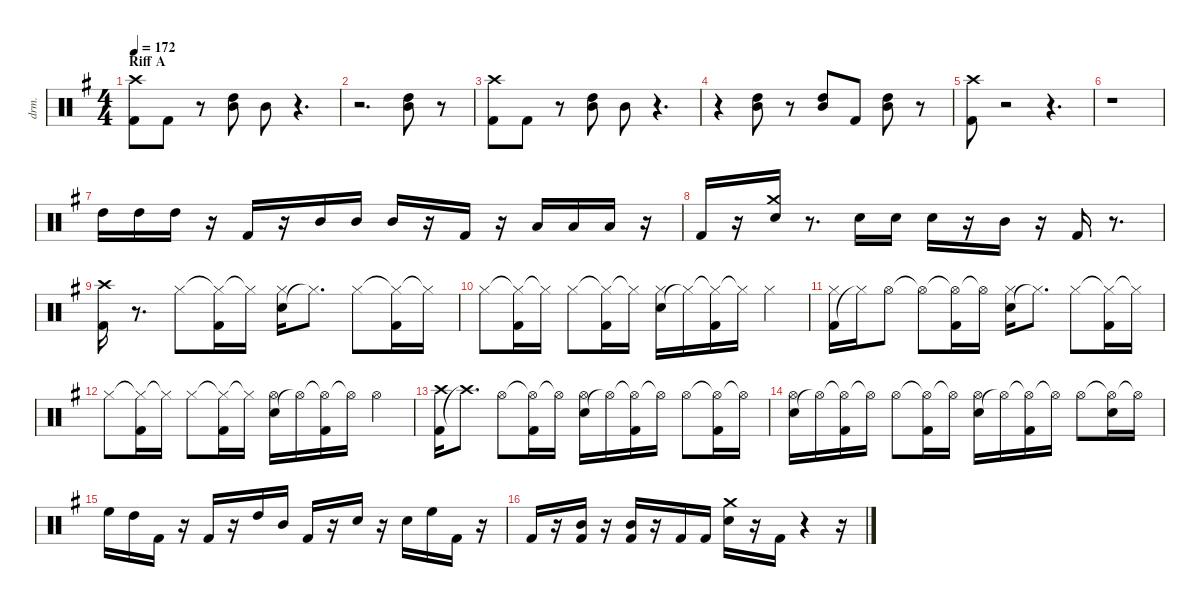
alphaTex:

\defaultSystemsLayout 4
\hideDynamics
\bracketExtendMode nobrackets
\otherSystemsTrackNameOrientation horizontal
\track ("Shinya" "drm.") {instrument percussion}
\staff {score}
\articulation defaults
\ts (4 4)
\beaming (8 2 2 2 2)
\section ("" "Riff A")
\tempo 172
\clef neutral
\ks eminor
("Kick (hit) 2"{acc forcenatural} "Crash high (hit)"{acc #}).8{dy fff beam Down} "Kick (hit) 2"{acc forcenatural}.8{beam Down} r.8{beam Down} ("Mid Tom (hit)"{acc forcenatural} "High Tom (hit)"{acc forcenatural}).8{beam Down} "Mid Tom (hit)"{acc forcenatural}.8{dy ff beam Down} r.4{d beam Down} |
r.2{d beam Down} ("Mid Tom (hit)"{acc forcenatural} "High Tom (hit)"{acc forcenatural}).8{dy fff beam Down} r.8{beam Down} |
("Kick (hit) 2"{acc forcenatural} "Crash high (hit)"{acc #}).8{beam Down} "Kick (hit) 2"{acc forcenatural}.8{beam Down} r.8{beam Down} ("Mid Tom (hit)"{acc forcenatural} "High Tom (hit)"{acc forcenatural}).8{beam Down} "Mid Tom (hit)"{acc forcenatural}.8{beam Down} r.4{d beam Down} |
r.4{beam Down} ("Mid Tom (hit)"{acc forcenatural} "High Tom (hit)"{acc forcenatural}).8{beam Down} r.8{beam Down} ("Mid Tom (hit)"{acc forcenatural} "High Tom (hit)"{acc forcenatural}).8{beam Up} "Kick (hit) 2"{acc forcenatural}.8{dy ff beam Up} ("Mid Tom (hit)"{acc forcenatural} "High Tom (hit)"{acc forcenatural}).8{dy fff beam Down} r.8{beam Down} |
("Kick (hit) 2"{acc forcenatural} "Crash high (hit)"{acc #}).8{beam Down} r.2{beam Down} r.4{d beam Down} |
r.1{beam Down} |
"High Tom (hit)"{acc forcenatural}.16{beam Down} "High Tom (hit)"{acc forcenatural}.16{beam Down} "High Tom (hit)"{acc forcenatural}.16{beam Down} r.16{beam Down} "Kick (hit) 2"{acc forcenatural}.16{beam Up} r.16{beam Up} "Mid Tom (hit)"{acc forcenatural}.16{beam Up} "Mid Tom (hit)"{acc forcenatural}.16{beam Up} "Mid Tom (hit)"{acc forcenatural}.16{beam Up} r.16{beam Up} "Kick (hit) 2"{acc forcenatural}.16{beam Up} r.16{beam Up} "Low Tom (hit)"{acc forcenatural}.16{beam Up} "Low Tom (hit)"{acc forcenatural}.16{dy ff beam Up} "Low Tom (hit)"{acc forcenatural}.16{dy fff beam Up} r.16{beam Up} |
"Kick (hit) 2"{acc forcenatural}.16{beam Up} r.16{beam Up} ("Snare (hit) 2"{acc forcenatural} "Crash medium (hit)"{acc forcenatural}).16{beam Down} r.8{d beam Down} "Snare (hit) 2"{acc forcenatural}.16{beam Down} "Snare (hit) 2"{acc forcenatural}.16{beam Down} "Snare (hit) 2"{acc forcenatural}.16{beam Down} r.16{beam Down} "Mid Tom (hit)"{acc forcenatural}.16{beam Down} r.16{beam Down} "Kick (hit) 2"{acc forcenatural}.16{beam Up} r.8{d beam Up} |
("Kick (hit) 2"{acc forcenatural} "Crash high (hit)"{acc #}).16{beam Down} r.8{d beam Down} "Hi-Hat (closed)"{acc #}.8{beam Down} ("Hi-Hat (closed)"{t acc #} "Kick (hit) 2"{acc forcenatural}).16{beam Down} "Hi-Hat (closed)"{t acc #}.16{beam Down} ("Snare (hit) 2"{acc forcenatural} "Hi-Hat (closed)"{acc #}).16{beam Down} "Hi-Hat (closed)"{t acc #}.8{d beam Down} "Hi-Hat (closed)"{acc #}.8{beam Down} ("Hi-Hat (closed)"{t acc #} "Kick (hit) 2"{acc forcenatural}).16{beam Down} "Hi-Hat (closed)"{t acc #}.16{beam Down} |
"Hi-Hat (closed)"{acc #}.8{beam Down} ("Hi-Hat (closed)"{t acc #} "Kick (hit) 2"{acc forcenatural}).16{beam Down} "Hi-Hat (closed)"{t acc #}.16{beam Down} "Hi-Hat (closed)"{acc #}.8{dy ff beam Down} ("Hi-Hat (closed)"{t acc #} "Kick (hit) 2"{acc forcenatural}).16{beam Down} "Hi-Hat (closed)"{t acc #}.16{beam Down} ("Snare (hit) 2"{acc forcenatural} "Hi-Hat (closed)"{acc #}).16{dy fff beam Down} "Hi-Hat (closed)"{t acc #}.16{beam Down} ("Hi-Hat (closed)"{t acc #} "Kick (hit) 2"{acc forcenatural}).16{beam Down} "Hi-Hat (closed)"{t acc #}.16{beam Down} "Hi-Hat (closed)"{acc #}.4{beam Down} |
("Kick (hit) 2"{acc forcenatural} "Hi-Hat (closed)"{acc #}).16{beam Down} "Hi-Hat (closed)"{t acc #}.16{beam Down} "Hi-Hat (open)"{acc #}.8{beam Down} "Hi-Hat (open)"{t acc #}.8{beam Down} ("Hi-Hat (open)"{t acc #} "Kick (hit) 2"{acc forcenatural}).16{beam Down} "Hi-Hat (open)"{t acc #}.16{beam Down} ("Snare (hit) 2"{acc forcenatural} "Hi-Hat (closed)"{acc #}).16{beam Down} "Hi-Hat (closed)"{t acc #}.8{d beam Down} "Hi-Hat (closed)"{acc #}.8{beam Down} ("Hi-Hat (closed)"{t acc #} "Kick (hit) 2"{acc forcenatural}).16{beam Down} "Hi-Hat (closed)"{t acc #}.16{beam Down} |
"Hi-Hat (closed)"{acc #}.8{beam Down} ("Hi-Hat (closed)"{t acc #} "Kick (hit) 2"{acc forcenatural}).16{beam Down} "Hi-Hat (closed)"{t acc #}.16{beam Down} "Hi-Hat (closed)"{acc #}.8{beam Down} ("Hi-Hat (closed)"{t acc #} "Kick (hit) 2"{acc forcenatural}).16{beam Down} "Hi-Hat (closed)"{t acc #}.16{beam Down} ("Snare (hit) 2"{acc forcenatural} "Hi-Hat (open)"{acc #}).16{beam Down} "Hi-Hat (open)"{t acc #}.16{beam Down} ("Hi-Hat (open)"{t acc #} "Kick (hit) 2"{acc forcenatural}).16{beam Down} "Hi-Hat (open)"{t acc #}.16{beam Down} "Hi-Hat (open)"{acc #}.4{beam Down} |
("Kick (hit) 2"{acc forcenatural} "Crash high (hit)"{acc #}).16{beam Down} "Crash high (hit)"{t acc #}.8{d beam Down} "Hi-Hat (open)"{acc #}.8{beam Down} ("Hi-Hat (open)"{t acc #} "Kick (hit) 2"{acc forcenatural}).16{beam Down} "Hi-Hat (open)"{t acc #}.16{beam Down} ("Snare (hit) 2"{acc forcenatural} "Hi-Hat (open)"{acc #}).16{beam Down} "Hi-Hat (open)"{t acc #}.16{beam Down} ("Hi-Hat (open)"{t acc #} "Kick (hit) 2"{acc forcenatural}).16{beam Down} "Hi-Hat (open)"{t acc #}.16{beam Down} "Hi-Hat (open)"{acc #}.8{beam Down} ("Hi-Hat (open)"{t acc #} "Kick (hit) 2"{acc forcenatural}).16{beam Down} "Hi-Hat (open)"{t acc #}.16{beam Down} |
("Snare (hit) 2"{acc forcenatural} "Hi-Hat (open)"{acc #}).16{beam Down} "Hi-Hat (open)"{t acc #}.16{beam Down} ("Hi-Hat (open)"{t acc #} "Kick (hit) 2"{acc forcenatural}).16{beam Down} "Hi-Hat (open)"{t acc #}.16{beam Down} "Hi-Hat (open)"{acc #}.8{beam Down} ("Hi-Hat (open)"{t acc #} "Kick (hit) 2"{acc forcenatural}).16{beam Down} "Hi-Hat (open)"{t acc #}.16{beam Down} ("Snare (hit) 2"{acc forcenatural} "Hi-Hat (open)"{acc #}).16{beam Down} "Hi-Hat (open)"{t acc #}.16{beam Down} ("Hi-Hat (open)"{t acc #} "Kick (hit) 2"{acc forcenatural}).16{beam Down} "Hi-Hat (open)"{t acc #}.16{beam Down} "Hi-Hat (open)"{acc #}.8{beam Down} ("Hi-Hat (open)"{t acc #} "Snare (hit) 2"{acc forcenatural}).16{beam Down} "Hi-Hat (open)"{t acc #}.16{beam Down} |
"High Floor Tom (hit)"{acc forcenatural}.16{beam Down} "High Tom (hit)"{acc forcenatural}.16{beam Down} "Kick (hit) 2"{acc forcenatural}.16{beam Down} r.16{beam Down} "Kick (hit) 2"{acc forcenatural}.16{beam Up} r.16{beam Up} "High Tom (hit)"{acc forcenatural}.16{beam Down} "Mid Tom (hit)"{acc forcenatural}.16{beam Down} "Kick (hit) 2"{acc forcenatural}.16{beam Up} r.16{beam Up} "Snare (hit) 2"{acc forcenatural}.16{beam Down} r.16{beam Down} "Snare (hit) 2"{acc forcenatural}.16{beam Down} "High Floor Tom (hit)"{acc forcenatural}.16{beam Down} "Kick (hit) 2"{acc forcenatural}.16{beam Down} r.16{beam Down} |
"Kick (hit) 2"{acc forcenatural}.16{beam Up} r.16{beam Up} ("Kick (hit) 2"{acc forcenatural} "Mid Tom (hit)"{acc forcenatural}).16{beam Up} r.16{beam Up} ("Kick (hit) 2"{acc forcenatural} "Mid Tom (hit)"{acc forcenatural}).16{beam Up} r.16{beam Up} "Kick (hit) 2"{acc forcenatural}.16{beam Up} "Kick (hit) 2"{acc forcenatural}.16{beam Up} ("Snare (hit) 2"{acc forcenatural} "Crash medium (hit)"{acc forcenatural}).16{beam Down} r.16{beam Down} "Kick (hit) 2"{acc forcenatural}.16{beam Up} r.4{beam Up} r.16{beam Up}
